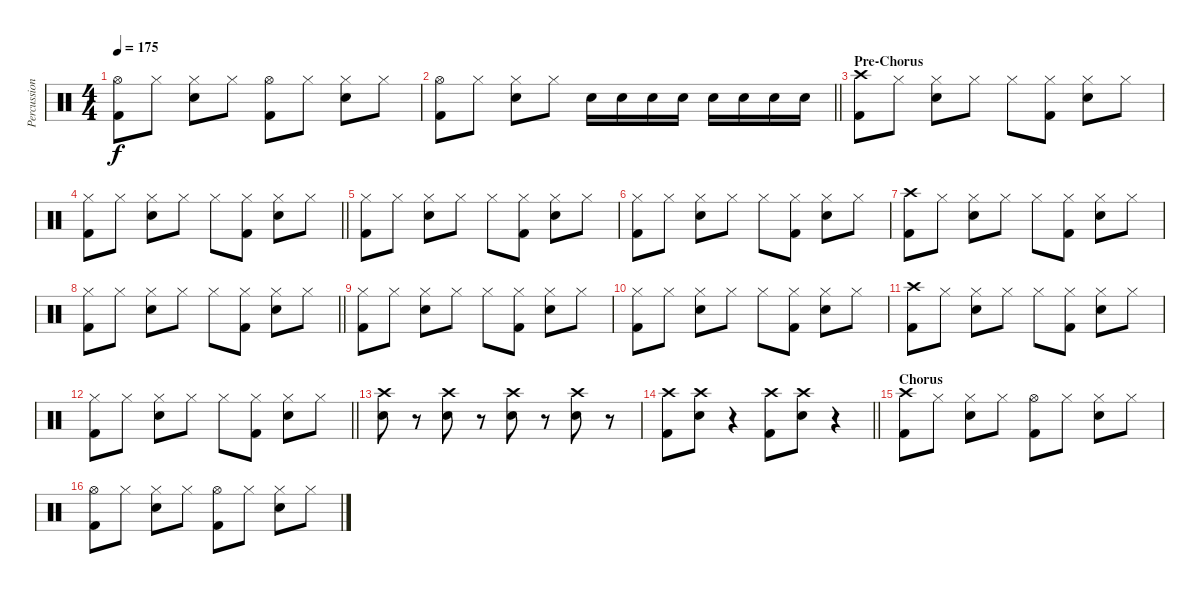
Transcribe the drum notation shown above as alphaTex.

\track ("Percussion" "Percussion") {instrument percussion}
\staff {score}
\articulation defaults
\ts (4 4)
\tempo 175
\clef neutral
\ks c
("Hi-Hat (open)" "Kick (hit) 2").8{dy f} "Hi-Hat (closed)".8 ("Hi-Hat (closed)" "Snare (hit) 2").8 "Hi-Hat (closed)".8 ("Hi-Hat (open)" "Kick (hit) 2").8 "Hi-Hat (closed)".8 ("Hi-Hat (closed)" "Snare (hit) 2").8 "Hi-Hat (closed)".8 |
\barLineRight lightlight
("Hi-Hat (open)" "Kick (hit) 2").8 "Hi-Hat (closed)".8 ("Hi-Hat (closed)" "Snare (hit) 2").8 "Hi-Hat (closed)".8 "Snare (hit) 2".16 "Snare (hit) 2".16 "Snare (hit) 2".16 "Snare (hit) 2".16 "Snare (hit) 2".16 "Snare (hit) 2".16 "Snare (hit) 2".16 "Snare (hit) 2".16 |
\section ("" "Pre-Chorus")
("Crash high (hit)" "Kick (hit) 2").8 "Hi-Hat (closed)".8 ("Hi-Hat (closed)" "Snare (hit) 2").8 "Hi-Hat (closed)".8 "Hi-Hat (closed)".8 ("Hi-Hat (closed)" "Kick (hit) 2").8 ("Hi-Hat (closed)" "Snare (hit) 2").8 "Hi-Hat (closed)".8 |
\barLineRight lightlight
("Hi-Hat (closed)" "Kick (hit) 2").8 "Hi-Hat (closed)".8 ("Hi-Hat (closed)" "Snare (hit) 2").8 "Hi-Hat (closed)".8 "Hi-Hat (closed)".8 ("Hi-Hat (closed)" "Kick (hit) 2").8 ("Hi-Hat (closed)" "Snare (hit) 2").8 "Hi-Hat (closed)".8 |
("Hi-Hat (closed)" "Kick (hit) 2").8 "Hi-Hat (closed)".8 ("Hi-Hat (closed)" "Snare (hit) 2").8 "Hi-Hat (closed)".8 "Hi-Hat (closed)".8 ("Hi-Hat (closed)" "Kick (hit) 2").8 ("Hi-Hat (closed)" "Snare (hit) 2").8 "Hi-Hat (closed)".8 |
("Hi-Hat (closed)" "Kick (hit) 2").8 "Hi-Hat (closed)".8 ("Hi-Hat (closed)" "Snare (hit) 2").8 "Hi-Hat (closed)".8 "Hi-Hat (closed)".8 ("Hi-Hat (closed)" "Kick (hit) 2").8 ("Hi-Hat (closed)" "Snare (hit) 2").8 "Hi-Hat (closed)".8 |
("Crash high (hit)" "Kick (hit) 2").8 "Hi-Hat (closed)".8 ("Hi-Hat (closed)" "Snare (hit) 2").8 "Hi-Hat (closed)".8 "Hi-Hat (closed)".8 ("Hi-Hat (closed)" "Kick (hit) 2").8 ("Hi-Hat (closed)" "Snare (hit) 2").8 "Hi-Hat (closed)".8 |
\barLineRight lightlight
("Hi-Hat (closed)" "Kick (hit) 2").8 "Hi-Hat (closed)".8 ("Hi-Hat (closed)" "Snare (hit) 2").8 "Hi-Hat (closed)".8 "Hi-Hat (closed)".8 ("Hi-Hat (closed)" "Kick (hit) 2").8 ("Hi-Hat (closed)" "Snare (hit) 2").8 "Hi-Hat (closed)".8 |
("Hi-Hat (closed)" "Kick (hit) 2").8 "Hi-Hat (closed)".8 ("Hi-Hat (closed)" "Snare (hit) 2").8 "Hi-Hat (closed)".8 "Hi-Hat (closed)".8 ("Hi-Hat (closed)" "Kick (hit) 2").8 ("Hi-Hat (closed)" "Snare (hit) 2").8 "Hi-Hat (closed)".8 |
("Hi-Hat (closed)" "Kick (hit) 2").8 "Hi-Hat (closed)".8 ("Hi-Hat (closed)" "Snare (hit) 2").8 "Hi-Hat (closed)".8 "Hi-Hat (closed)".8 ("Hi-Hat (closed)" "Kick (hit) 2").8 ("Hi-Hat (closed)" "Snare (hit) 2").8 "Hi-Hat (closed)".8 |
("Crash high (hit)" "Kick (hit) 2").8 "Hi-Hat (closed)".8 ("Hi-Hat (closed)" "Snare (hit) 2").8 "Hi-Hat (closed)".8 "Hi-Hat (closed)".8 ("Hi-Hat (closed)" "Kick (hit) 2").8 ("Hi-Hat (closed)" "Snare (hit) 2").8 "Hi-Hat (closed)".8 |
\barLineRight lightlight
("Hi-Hat (closed)" "Kick (hit) 2").8 "Hi-Hat (closed)".8 ("Hi-Hat (closed)" "Snare (hit) 2").8 "Hi-Hat (closed)".8 "Hi-Hat (closed)".8 ("Hi-Hat (closed)" "Kick (hit) 2").8 ("Hi-Hat (closed)" "Snare (hit) 2").8 "Hi-Hat (closed)".8 |
("Crash high (hit)" "Snare (hit) 2").8 r.8 ("Crash high (hit)" "Snare (hit) 2").8 r.8 ("Crash high (hit)" "Snare (hit) 2").8 r.8 ("Crash high (hit)" "Snare (hit) 2").8 r.8 |
\barLineRight lightlight
("Crash high (hit)" "Kick (hit) 2").8 ("Crash high (hit)" "Snare (hit) 2").8 r.4 ("Crash high (hit)" "Kick (hit) 2").8 ("Crash high (hit)" "Snare (hit) 2").8 r.4 |
\section ("" "Chorus")
("Crash high (hit)" "Kick (hit) 2").8 "Hi-Hat (closed)".8 ("Hi-Hat (closed)" "Snare (hit) 2").8 "Hi-Hat (closed)".8 ("Hi-Hat (open)" "Kick (hit) 2").8 "Hi-Hat (closed)".8 ("Hi-Hat (closed)" "Snare (hit) 2").8 "Hi-Hat (closed)".8 |
("Hi-Hat (open)" "Kick (hit) 2").8 "Hi-Hat (closed)".8 ("Hi-Hat (closed)" "Snare (hit) 2").8 "Hi-Hat (closed)".8 ("Hi-Hat (open)" "Kick (hit) 2").8 "Hi-Hat (closed)".8 ("Hi-Hat (closed)" "Snare (hit) 2").8 "Hi-Hat (closed)".8
